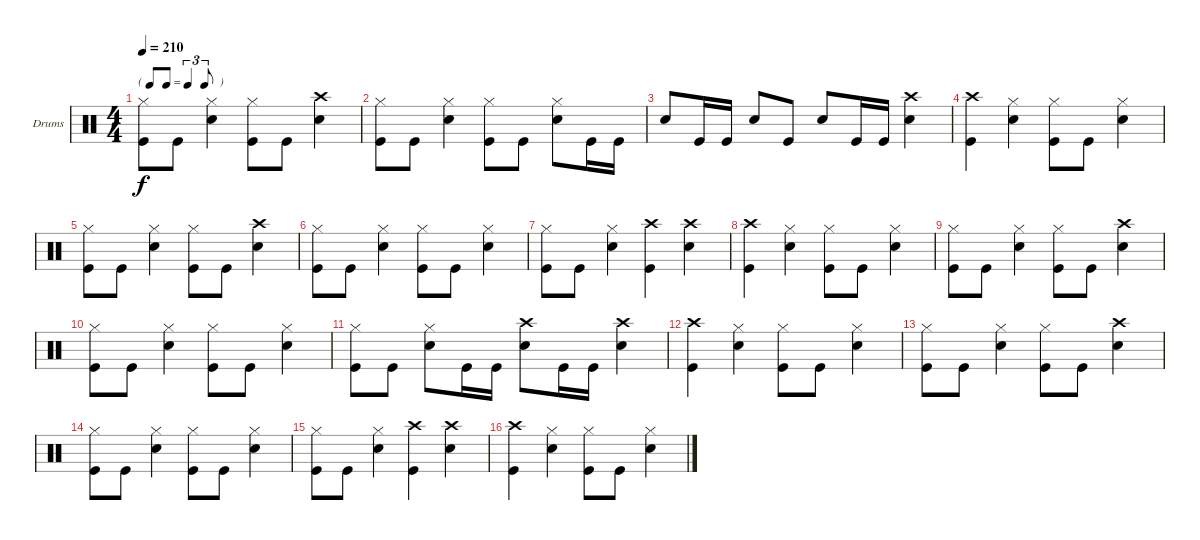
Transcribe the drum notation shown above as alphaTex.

\bracketExtendMode groupsimilarinstruments
\firstSystemTrackNameOrientation horizontal
\otherSystemsTrackNameOrientation horizontal
\track ("Drums" "Drums") {instrument percussion}
\staff {score}
\articulation defaults
\ts (4 4)
\tf triplet8th
\tempo 210
\clef neutral
\ks c
("Hi-Hat (closed)" "Kick (hit)").8{dy f} "Kick (hit)".8 ("Snare (hit) 2" "Hi-Hat (closed)").4 ("Hi-Hat (closed)" "Kick (hit)").8 "Kick (hit)".8 ("Crash high (hit)" "Snare (hit) 2").4 |
("Hi-Hat (closed)" "Kick (hit)").8 "Kick (hit)".8 ("Snare (hit) 2" "Hi-Hat (closed)").4 ("Hi-Hat (closed)" "Kick (hit)").8 "Kick (hit)".8 ("Snare (hit) 2" "Hi-Hat (closed)").8 "Kick (hit)".16 "Kick (hit)".16 |
"Snare (hit) 2".8 "Kick (hit)".16 "Kick (hit)".16 "Snare (hit) 2".8 "Kick (hit)".8 "Snare (hit) 2".8 "Kick (hit)".16 "Kick (hit)".16 ("Crash high (hit)" "Snare (hit) 2").4 |
("Kick (hit)" "Crash high (hit)").4 ("Hi-Hat (closed)" "Snare (hit) 2").4 ("Hi-Hat (closed)" "Kick (hit)").8 "Kick (hit)".8 ("Snare (hit) 2" "Hi-Hat (closed)").4 |
("Hi-Hat (closed)" "Kick (hit)").8 "Kick (hit)".8 ("Snare (hit) 2" "Hi-Hat (closed)").4 ("Hi-Hat (closed)" "Kick (hit)").8 "Kick (hit)".8 ("Crash high (hit)" "Snare (hit) 2").4 |
("Hi-Hat (closed)" "Kick (hit)").8 "Kick (hit)".8 ("Snare (hit) 2" "Hi-Hat (closed)").4 ("Hi-Hat (closed)" "Kick (hit)").8 "Kick (hit)".8 ("Snare (hit) 2" "Hi-Hat (closed)").4 |
("Hi-Hat (closed)" "Kick (hit)").8 "Kick (hit)".8 ("Snare (hit) 2" "Hi-Hat (closed)").4 ("Crash high (hit)" "Kick (hit)").4 ("Crash high (hit)" "Snare (hit) 2").4 |
("Kick (hit)" "Crash high (hit)").4 ("Hi-Hat (closed)" "Snare (hit) 2").4 ("Hi-Hat (closed)" "Kick (hit)").8 "Kick (hit)".8 ("Snare (hit) 2" "Hi-Hat (closed)").4 |
("Hi-Hat (closed)" "Kick (hit)").8 "Kick (hit)".8 ("Snare (hit) 2" "Hi-Hat (closed)").4 ("Hi-Hat (closed)" "Kick (hit)").8 "Kick (hit)".8 ("Crash high (hit)" "Snare (hit) 2").4 |
("Hi-Hat (closed)" "Kick (hit)").8 "Kick (hit)".8 ("Snare (hit) 2" "Hi-Hat (closed)").4 ("Hi-Hat (closed)" "Kick (hit)").8 "Kick (hit)".8 ("Snare (hit) 2" "Hi-Hat (closed)").4 |
("Hi-Hat (closed)" "Kick (hit)").8 "Kick (hit)".8 ("Snare (hit) 2" "Hi-Hat (closed)").8 "Kick (hit)".16 "Kick (hit)".16 ("Snare (hit) 2" "Crash high (hit)").8 "Kick (hit)".16 "Kick (hit)".16 ("Crash high (hit)" "Snare (hit) 2").4 |
("Kick (hit)" "Crash high (hit)").4 ("Hi-Hat (closed)" "Snare (hit) 2").4 ("Hi-Hat (closed)" "Kick (hit)").8 "Kick (hit)".8 ("Snare (hit) 2" "Hi-Hat (closed)").4 |
("Hi-Hat (closed)" "Kick (hit)").8 "Kick (hit)".8 ("Snare (hit) 2" "Hi-Hat (closed)").4 ("Hi-Hat (closed)" "Kick (hit)").8 "Kick (hit)".8 ("Crash high (hit)" "Snare (hit) 2").4 |
("Hi-Hat (closed)" "Kick (hit)").8 "Kick (hit)".8 ("Snare (hit) 2" "Hi-Hat (closed)").4 ("Hi-Hat (closed)" "Kick (hit)").8 "Kick (hit)".8 ("Snare (hit) 2" "Hi-Hat (closed)").4 |
("Hi-Hat (closed)" "Kick (hit)").8 "Kick (hit)".8 ("Snare (hit) 2" "Hi-Hat (closed)").4 ("Crash high (hit)" "Kick (hit)").4 ("Crash high (hit)" "Snare (hit) 2").4 |
("Kick (hit)" "Crash high (hit)").4 ("Hi-Hat (closed)" "Snare (hit) 2").4 ("Hi-Hat (closed)" "Kick (hit)").8 "Kick (hit)".8 ("Snare (hit) 2" "Hi-Hat (closed)").4
